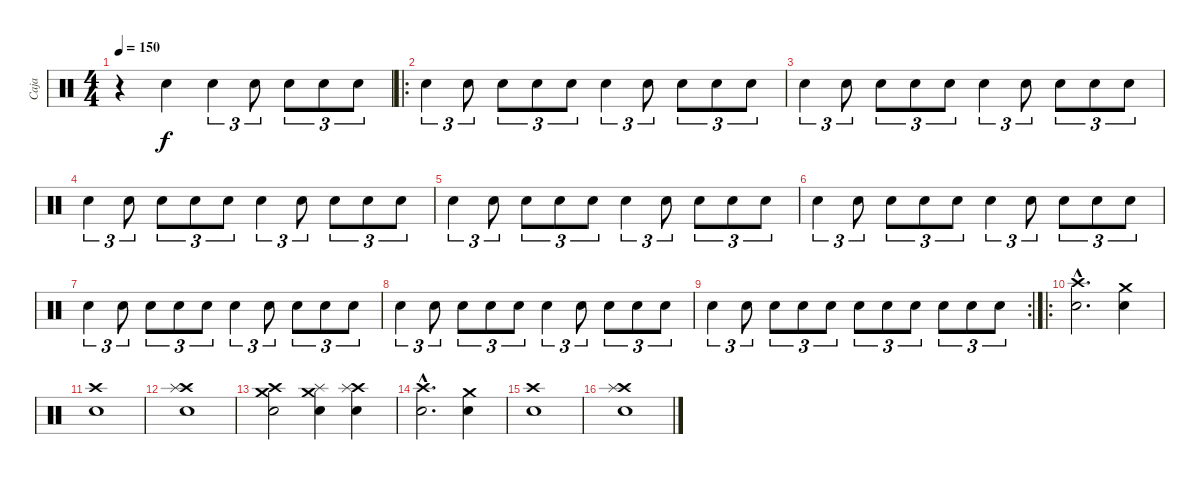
\track ("Caja" "Caja") {instrument percussion}
\staff {score}
\articulation defaults
\ts (4 4)
\tempo 150
\clef neutral
\ks c
r.4{dy f} "Electric Snare (hit)".4 "Electric Snare (hit)".4{tu (3 2)} "Electric Snare (hit)".8{tu (3 2)} "Electric Snare (hit)".8{tu (3 2)} "Electric Snare (hit)".8{tu (3 2)} "Electric Snare (hit)".8{tu (3 2)} |
\ro "Electric Snare (hit)".4{tu (3 2)} "Electric Snare (hit)".8{tu (3 2)} "Electric Snare (hit)".8{tu (3 2)} "Electric Snare (hit)".8{tu (3 2)} "Electric Snare (hit)".8{tu (3 2)} "Electric Snare (hit)".4{tu (3 2)} "Electric Snare (hit)".8{tu (3 2)} "Electric Snare (hit)".8{tu (3 2)} "Electric Snare (hit)".8{tu (3 2)} "Electric Snare (hit)".8{tu (3 2)}
|
"Electric Snare (hit)".4{tu (3 2)} "Electric Snare (hit)".8{tu (3 2)} "Electric Snare (hit)".8{tu (3 2)} "Electric Snare (hit)".8{tu (3 2)} "Electric Snare (hit)".8{tu (3 2)} "Electric Snare (hit)".4{tu (3 2)} "Electric Snare (hit)".8{tu (3 2)} "Electric Snare (hit)".8{tu (3 2)} "Electric Snare (hit)".8{tu (3 2)} "Electric Snare (hit)".8{tu (3 2)} |
"Electric Snare (hit)".4{tu (3 2)} "Electric Snare (hit)".8{tu (3 2)} "Electric Snare (hit)".8{tu (3 2)} "Electric Snare (hit)".8{tu (3 2)} "Electric Snare (hit)".8{tu (3 2)} "Electric Snare (hit)".4{tu (3 2)} "Electric Snare (hit)".8{tu (3 2)} "Electric Snare (hit)".8{tu (3 2)} "Electric Snare (hit)".8{tu (3 2)} "Electric Snare (hit)".8{tu (3 2)} |
"Electric Snare (hit)".4{tu (3 2)} "Electric Snare (hit)".8{tu (3 2)} "Electric Snare (hit)".8{tu (3 2)} "Electric Snare (hit)".8{tu (3 2)} "Electric Snare (hit)".8{tu (3 2)} "Electric Snare (hit)".4{tu (3 2)} "Electric Snare (hit)".8{tu (3 2)} "Electric Snare (hit)".8{tu (3 2)} "Electric Snare (hit)".8{tu (3 2)} "Electric Snare (hit)".8{tu (3 2)} |
"Electric Snare (hit)".4{tu (3 2)} "Electric Snare (hit)".8{tu (3 2)} "Electric Snare (hit)".8{tu (3 2)} "Electric Snare (hit)".8{tu (3 2)} "Electric Snare (hit)".8{tu (3 2)} "Electric Snare (hit)".4{tu (3 2)} "Electric Snare (hit)".8{tu (3 2)} "Electric Snare (hit)".8{tu (3 2)} "Electric Snare (hit)".8{tu (3 2)} "Electric Snare (hit)".8{tu (3 2)} |
"Electric Snare (hit)".4{tu (3 2)} "Electric Snare (hit)".8{tu (3 2)} "Electric Snare (hit)".8{tu (3 2)} "Electric Snare (hit)".8{tu (3 2)} "Electric Snare (hit)".8{tu (3 2)} "Electric Snare (hit)".4{tu (3 2)} "Electric Snare (hit)".8{tu (3 2)} "Electric Snare (hit)".8{tu (3 2)} "Electric Snare (hit)".8{tu (3 2)} "Electric Snare (hit)".8{tu (3 2)} |
"Electric Snare (hit)".4{tu (3 2)} "Electric Snare (hit)".8{tu (3 2)} "Electric Snare (hit)".8{tu (3 2)} "Electric Snare (hit)".8{tu (3 2)} "Electric Snare (hit)".8{tu (3 2)} "Electric Snare (hit)".4{tu (3 2)} "Electric Snare (hit)".8{tu (3 2)} "Electric Snare (hit)".8{tu (3 2)} "Electric Snare (hit)".8{tu (3 2)} "Electric Snare (hit)".8{tu (3 2)} |
\rc 2 "Electric Snare (hit)".4{tu (3 2)} "Electric Snare (hit)".8{tu (3 2)} "Electric Snare (hit)".8{tu (3 2)} "Electric Snare (hit)".8{tu (3 2)} "Electric Snare (hit)".8{tu (3 2)} "Electric Snare (hit)".8{tu (3 2)} "Electric Snare (hit)".8{tu (3 2)} "Electric Snare (hit)".8{tu (3 2)} "Electric Snare (hit)".8{tu (3 2)} "Electric Snare (hit)".8{tu (3 2)} "Electric Snare (hit)".8{tu (3 2)}
|
\ro
("Crash high (hit)"{hac} "Electric Snare (hit)"{hac}).2{d} ("Crash medium (hit)" "Electric Snare (hit)").4 |
("Crash high (hit)" "Electric Snare (hit)").1 |
("Crash high (hit)" "Splash (hit)" "Electric Snare (hit)").1 |
("Crash medium (hit)" "Crash high (hit)" "Electric Snare (hit)").2 ("Crash medium (hit)" "Splash (hit)" "Electric Snare (hit)").4 ("Crash high (hit)" "Splash (hit)" "Electric Snare (hit)").4 |
("Crash high (hit)"{hac} "Electric Snare (hit)"{hac}).2{d} ("Crash medium (hit)" "Electric Snare (hit)").4 |
("Crash high (hit)" "Electric Snare (hit)").1 |
("Crash high (hit)" "Splash (hit)" "Electric Snare (hit)").1
